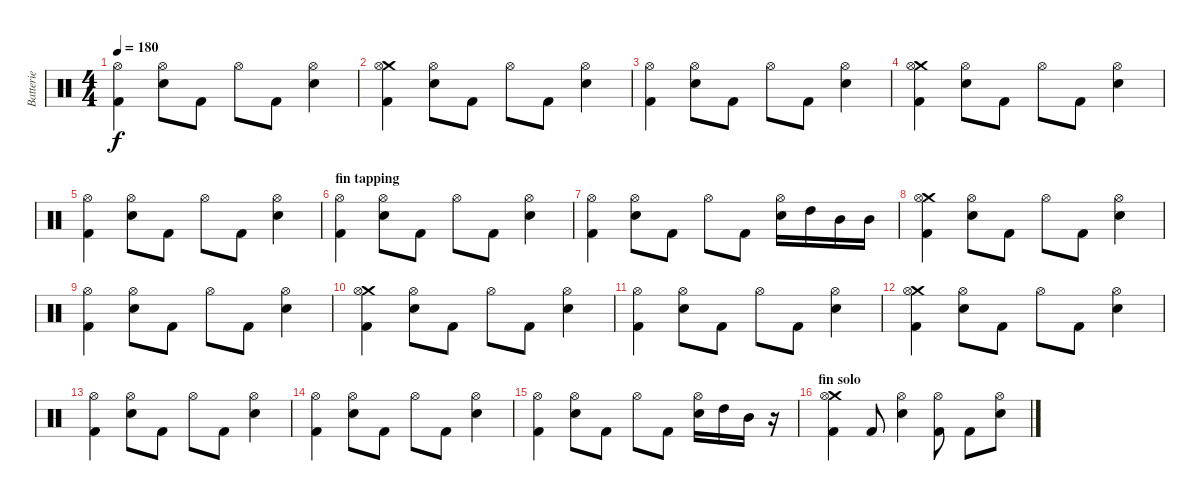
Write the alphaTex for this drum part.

\track ("Batterie" "Batterie") {instrument percussion}
\staff {score}
\articulation defaults
\ts (4 4)
\tempo 180
\clef neutral
\ks c
("Hi-Hat (open)" "Kick (hit) 2").4{dy f} ("Hi-Hat (open)" "Electric Snare (hit)").8 "Kick (hit) 2".8 "Hi-Hat (open)".8 "Kick (hit) 2".8 ("Hi-Hat (open)" "Electric Snare (hit)").4 |
("Crash medium (hit)" "Hi-Hat (open)" "Kick (hit) 2").4 ("Hi-Hat (open)" "Electric Snare (hit)").8 "Kick (hit) 2".8 "Hi-Hat (open)".8 "Kick (hit) 2".8 ("Hi-Hat (open)" "Electric Snare (hit)").4 |
("Hi-Hat (open)" "Kick (hit) 2").4 ("Hi-Hat (open)" "Electric Snare (hit)").8 "Kick (hit) 2".8 "Hi-Hat (open)".8 "Kick (hit) 2".8 ("Hi-Hat (open)" "Electric Snare (hit)").4 |
("Crash medium (hit)" "Hi-Hat (open)" "Kick (hit) 2").4 ("Hi-Hat (open)" "Electric Snare (hit)").8 "Kick (hit) 2".8 "Hi-Hat (open)".8 "Kick (hit) 2".8 ("Hi-Hat (open)" "Electric Snare (hit)").4 |
("Hi-Hat (open)" "Kick (hit) 2").4 ("Hi-Hat (open)" "Electric Snare (hit)").8 "Kick (hit) 2".8 "Hi-Hat (open)".8 "Kick (hit) 2".8 ("Hi-Hat (open)" "Electric Snare (hit)").4 |
\section ("" "fin tapping")
("Hi-Hat (open)" "Kick (hit) 2").4 ("Hi-Hat (open)" "Electric Snare (hit)").8 "Kick (hit) 2".8 "Hi-Hat (open)".8 "Kick (hit) 2".8 ("Hi-Hat (open)" "Electric Snare (hit)").4 |
("Hi-Hat (open)" "Kick (hit) 2").4 ("Hi-Hat (open)" "Electric Snare (hit)").8 "Kick (hit) 2".8 "Hi-Hat (open)".8 "Kick (hit) 2".8 ("Hi-Hat (open)" "Electric Snare (hit)").16 "High Tom (hit)".16 "Mid Tom (hit)".16 "Mid Tom (hit)".16 |
("Crash medium (hit)" "Hi-Hat (open)" "Kick (hit) 2").4 ("Hi-Hat (open)" "Electric Snare (hit)").8 "Kick (hit) 2".8 "Hi-Hat (open)".8 "Kick (hit) 2".8 ("Hi-Hat (open)" "Electric Snare (hit)").4 |
("Hi-Hat (open)" "Kick (hit) 2").4 ("Hi-Hat (open)" "Electric Snare (hit)").8 "Kick (hit) 2".8 "Hi-Hat (open)".8 "Kick (hit) 2".8 ("Hi-Hat (open)" "Electric Snare (hit)").4 |
("Crash medium (hit)" "Hi-Hat (open)" "Kick (hit) 2").4 ("Hi-Hat (open)" "Electric Snare (hit)").8 "Kick (hit) 2".8 "Hi-Hat (open)".8 "Kick (hit) 2".8 ("Hi-Hat (open)" "Electric Snare (hit)").4 |
("Hi-Hat (open)" "Kick (hit) 2").4 ("Hi-Hat (open)" "Electric Snare (hit)").8 "Kick (hit) 2".8 "Hi-Hat (open)".8 "Kick (hit) 2".8 ("Hi-Hat (open)" "Electric Snare (hit)").4 |
("Crash medium (hit)" "Hi-Hat (open)" "Kick (hit) 2").4 ("Hi-Hat (open)" "Electric Snare (hit)").8 "Kick (hit) 2".8 "Hi-Hat (open)".8 "Kick (hit) 2".8 ("Hi-Hat (open)" "Electric Snare (hit)").4 |
("Hi-Hat (open)" "Kick (hit) 2").4 ("Hi-Hat (open)" "Electric Snare (hit)").8 "Kick (hit) 2".8 "Hi-Hat (open)".8 "Kick (hit) 2".8 ("Hi-Hat (open)" "Electric Snare (hit)").4 |
("Hi-Hat (open)" "Kick (hit) 2").4 ("Hi-Hat (open)" "Electric Snare (hit)").8 "Kick (hit) 2".8 "Hi-Hat (open)".8 "Kick (hit) 2".8 ("Hi-Hat (open)" "Electric Snare (hit)").4 |
("Hi-Hat (open)" "Kick (hit) 2").4 ("Hi-Hat (open)" "Electric Snare (hit)").8 "Kick (hit) 2".8 "Hi-Hat (open)".8 "Kick (hit) 2".8 ("Hi-Hat (open)" "Electric Snare (hit)").16 "High Tom (hit)".16 "Mid Tom (hit)".16 r.16 |
\section ("" "fin solo")
("Crash medium (hit)" "Hi-Hat (open)" "Kick (hit) 2").4 "Kick (hit) 2".8 ("Hi-Hat (open)" "Electric Snare (hit)").4 ("Hi-Hat (open)" "Kick (hit) 2").8 "Kick (hit) 2".8 ("Hi-Hat (open)" "Electric Snare (hit)").8
